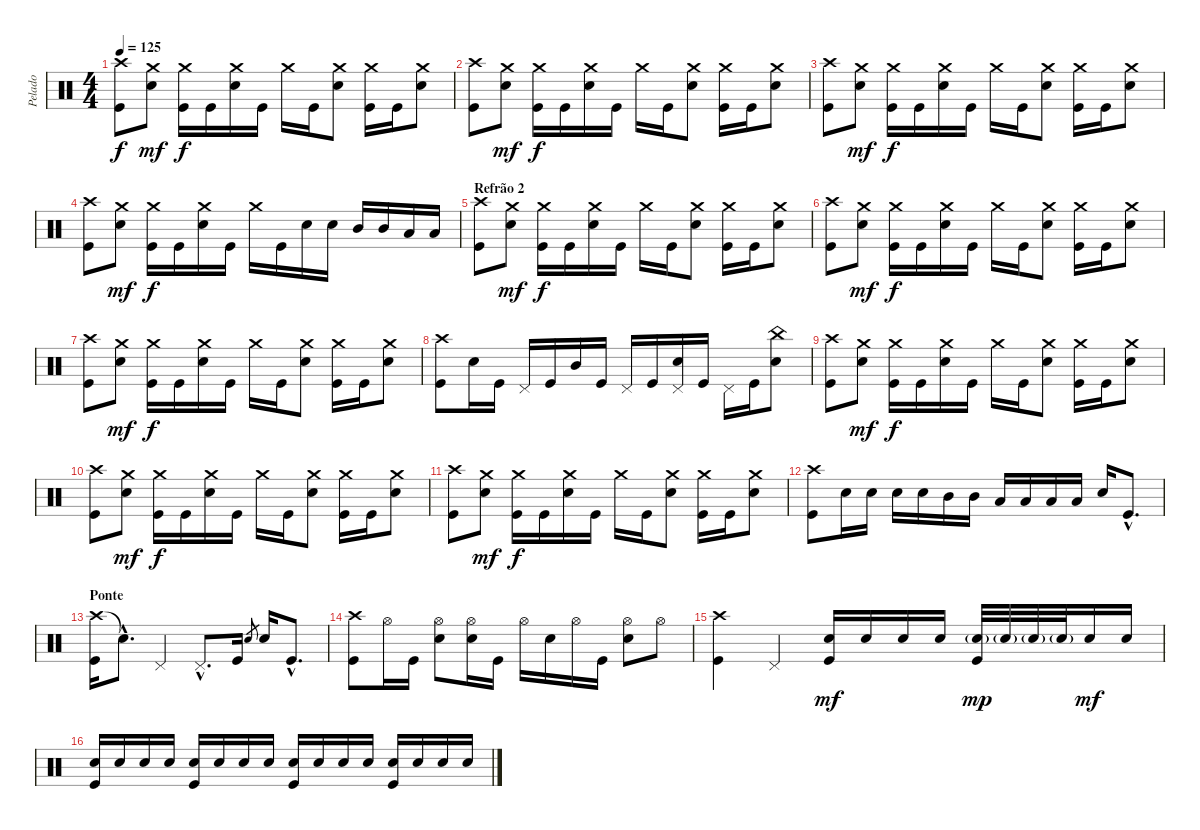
\track ("Pelado" "Pelado") {instrument percussion}
\staff {score}
\articulation defaults
\ts (4 4)
\tempo 125
\clef neutral
\ks c
("Crash high (hit)" "Kick (hit)").8{dy f} ("Crash medium (hit)" "Electric Snare (hit)").8{dy mf} ("Crash medium (hit)" "Kick (hit)").16{dy f} "Kick (hit)".16 ("Crash medium (hit)" "Electric Snare (hit)").16 "Kick (hit)".16 "Crash medium (hit)".16 "Kick (hit)".16 ("Crash medium (hit)" "Electric Snare (hit)").8 ("Crash medium (hit)" "Kick (hit)").16 "Kick (hit)".16 ("Crash medium (hit)" "Electric Snare (hit)").8 |
("Crash high (hit)" "Kick (hit)").8 ("Crash medium (hit)" "Electric Snare (hit)").8{dy mf} ("Crash medium (hit)" "Kick (hit)").16{dy f} "Kick (hit)".16 ("Crash medium (hit)" "Electric Snare (hit)").16 "Kick (hit)".16 "Crash medium (hit)".16 "Kick (hit)".16 ("Crash medium (hit)" "Electric Snare (hit)").8 ("Crash medium (hit)" "Kick (hit)").16 "Kick (hit)".16 ("Crash medium (hit)" "Electric Snare (hit)").8 |
("Crash high (hit)" "Kick (hit)").8 ("Crash medium (hit)" "Electric Snare (hit)").8{dy mf} ("Crash medium (hit)" "Kick (hit)").16{dy f} "Kick (hit)".16 ("Crash medium (hit)" "Electric Snare (hit)").16 "Kick (hit)".16 "Crash medium (hit)".16 "Kick (hit)".16 ("Crash medium (hit)" "Electric Snare (hit)").8 ("Crash medium (hit)" "Kick (hit)").16 "Kick (hit)".16 ("Crash medium (hit)" "Electric Snare (hit)").8 |
("Crash high (hit)" "Kick (hit)").8 ("Crash medium (hit)" "Electric Snare (hit)").8{dy mf} ("Crash medium (hit)" "Kick (hit)").16{dy f} "Kick (hit)".16 ("Crash medium (hit)" "Electric Snare (hit)").16 "Kick (hit)".16 "Crash medium (hit)".16 "Kick (hit)".16 "Electric Snare (hit)".16 "Electric Snare (hit)".16 "Mid Tom (hit)".16 "Mid Tom (hit)".16 "Low Tom (hit)".16 "Low Tom (hit)".16 |
\section ("" "Refrão 2")
("Crash high (hit)" "Kick (hit)").8 ("Crash medium (hit)" "Electric Snare (hit)").8{dy mf} ("Crash medium (hit)" "Kick (hit)").16{dy f} "Kick (hit)".16 ("Crash medium (hit)" "Electric Snare (hit)").16 "Kick (hit)".16 "Crash medium (hit)".16 "Kick (hit)".16 ("Crash medium (hit)" "Electric Snare (hit)").8 ("Crash medium (hit)" "Kick (hit)").16 "Kick (hit)".16 ("Crash medium (hit)" "Electric Snare (hit)").8 |
("Crash high (hit)" "Kick (hit)").8 ("Crash medium (hit)" "Electric Snare (hit)").8{dy mf} ("Crash medium (hit)" "Kick (hit)").16{dy f} "Kick (hit)".16 ("Crash medium (hit)" "Electric Snare (hit)").16 "Kick (hit)".16 "Crash medium (hit)".16 "Kick (hit)".16 ("Crash medium (hit)" "Electric Snare (hit)").8 ("Crash medium (hit)" "Kick (hit)").16 "Kick (hit)".16 ("Crash medium (hit)" "Electric Snare (hit)").8 |
("Crash high (hit)" "Kick (hit)").8 ("Crash medium (hit)" "Electric Snare (hit)").8{dy mf} ("Crash medium (hit)" "Kick (hit)").16{dy f} "Kick (hit)".16 ("Crash medium (hit)" "Electric Snare (hit)").16 "Kick (hit)".16 "Crash medium (hit)".16 "Kick (hit)".16 ("Crash medium (hit)" "Electric Snare (hit)").8 ("Crash medium (hit)" "Kick (hit)").16 "Kick (hit)".16 ("Crash medium (hit)" "Electric Snare (hit)").8 |
("Crash high (hit)" "Kick (hit)").8 "Electric Snare (hit)".16 "Kick (hit)".16 "Pedal Hi-Hat (hit)".16 "Kick (hit)".16 "Mid Tom (hit)".16 "Kick (hit)".16 "Pedal Hi-Hat (hit)".16 "Kick (hit)".16 ("Electric Snare (hit)" "Pedal Hi-Hat (hit)").16 "Kick (hit)".16 "Pedal Hi-Hat (hit)".16 "Kick (hit)".16 ("China (hit)" "Electric Snare (hit)").8 |
("Crash high (hit)" "Kick (hit)").8 ("Crash medium (hit)" "Electric Snare (hit)").8{dy mf} ("Crash medium (hit)" "Kick (hit)").16{dy f} "Kick (hit)".16 ("Crash medium (hit)" "Electric Snare (hit)").16 "Kick (hit)".16 "Crash medium (hit)".16 "Kick (hit)".16 ("Crash medium (hit)" "Electric Snare (hit)").8 ("Crash medium (hit)" "Kick (hit)").16 "Kick (hit)".16 ("Crash medium (hit)" "Electric Snare (hit)").8 |
("Crash high (hit)" "Kick (hit)").8 ("Crash medium (hit)" "Electric Snare (hit)").8{dy mf} ("Crash medium (hit)" "Kick (hit)").16{dy f} "Kick (hit)".16 ("Crash medium (hit)" "Electric Snare (hit)").16 "Kick (hit)".16 "Crash medium (hit)".16 "Kick (hit)".16 ("Crash medium (hit)" "Electric Snare (hit)").8 ("Crash medium (hit)" "Kick (hit)").16 "Kick (hit)".16 ("Crash medium (hit)" "Electric Snare (hit)").8 |
("Crash high (hit)" "Kick (hit)").8 ("Crash medium (hit)" "Electric Snare (hit)").8{dy mf} ("Crash medium (hit)" "Kick (hit)").16{dy f} "Kick (hit)".16 ("Crash medium (hit)" "Electric Snare (hit)").16 "Kick (hit)".16 "Crash medium (hit)".16 "Kick (hit)".16 ("Crash medium (hit)" "Electric Snare (hit)").8 ("Crash medium (hit)" "Kick (hit)").16 "Kick (hit)".16 ("Crash medium (hit)" "Electric Snare (hit)").8 |
("Crash high (hit)" "Kick (hit)").8 "Electric Snare (hit)".16 "Electric Snare (hit)".16 "Electric Snare (hit)".16 "Electric Snare (hit)".16 "Mid Tom (hit)".16 "Mid Tom (hit)".16 "Low Tom (hit)".16 "Low Tom (hit)".16 "Low Tom (hit)".16 "Low Tom (hit)".16 "Electric Snare (hit)".16 "Kick (hit)"{hac}.8{d} |
\section ("" "Ponte")
("Crash high (hit)" "Kick (hit)").16 "Snare (hit)"{hac t}.8{d volume 0} "Pedal Hi-Hat (hit)".4{volume 13} "Pedal Hi-Hat (hit)"{hac}.8{d} "Kick (hit)".16 "Electric Snare (hit)".8{gr} "Electric Snare (hit)".16 "Kick (hit)"{hac}.8{d} |
("Crash high (hit)" "Kick (hit)").8 "Hi-Hat (open)".16 "Kick (hit)".16 ("Hi-Hat (open)" "Electric Snare (hit)").8 ("Hi-Hat (open)" "Electric Snare (hit)").16 "Kick (hit)".16 "Hi-Hat (open)".16 "Electric Snare (hit)".16 "Hi-Hat (open)".16 "Kick (hit)".16 ("Hi-Hat (open)" "Electric Snare (hit)").8 "Hi-Hat (open)".8 |
("Crash high (hit)" "Kick (hit)").4 "Pedal Hi-Hat (hit)".4 ("Electric Snare (hit)" "Kick (hit)").16{dy mf} "Electric Snare (hit)".16 "Electric Snare (hit)".16 "Electric Snare (hit)".16 ("Electric Snare (hit)"{g} "Kick (hit)").32{dy mp} "Electric Snare (hit)"{g}.32 "Electric Snare (hit)"{g}.32 "Electric Snare (hit)"{g}.32 "Electric Snare (hit)".16{dy mf} "Electric Snare (hit)".16 |
("Electric Snare (hit)" "Kick (hit)").16 "Electric Snare (hit)".16 "Electric Snare (hit)".16 "Electric Snare (hit)".16 ("Electric Snare (hit)" "Kick (hit)").16 "Electric Snare (hit)".16 "Electric Snare (hit)".16 "Electric Snare (hit)".16 ("Electric Snare (hit)" "Kick (hit)").16 "Electric Snare (hit)".16 "Electric Snare (hit)".16 "Electric Snare (hit)".16 ("Electric Snare (hit)" "Kick (hit)").16 "Electric Snare (hit)".16 "Electric Snare (hit)".16 "Electric Snare (hit)".16
